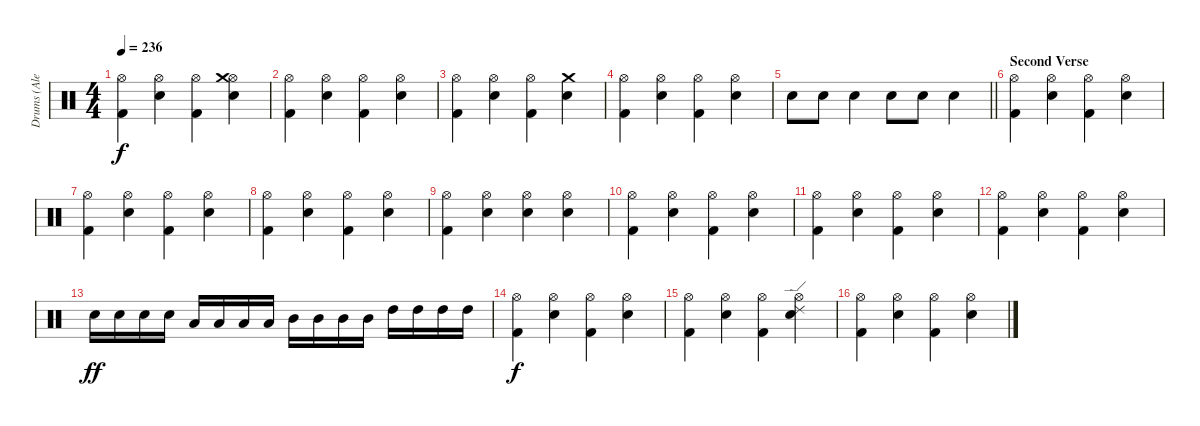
\track ("Drums (Alex Van Halen)" "Drums (Ale") {instrument percussion}
\staff {score}
\articulation defaults
\ts (4 4)
\tempo 236
\clef neutral
\ks c
("Hi-Hat (open)" "Kick (hit) 2").4{dy f} ("Hi-Hat (open)" "Snare (hit) 2").4 ("Hi-Hat (open)" "Kick (hit) 2").4 ("Hi-Hat (open)" "Crash medium (hit)" "Snare (hit) 2").4 |
("Hi-Hat (open)" "Kick (hit) 2").4 ("Hi-Hat (open)" "Snare (hit) 2").4 ("Hi-Hat (open)" "Kick (hit) 2").4 ("Hi-Hat (open)" "Snare (hit) 2").4 |
("Hi-Hat (open)" "Kick (hit) 2").4 ("Hi-Hat (open)" "Snare (hit) 2").4 ("Hi-Hat (open)" "Kick (hit) 2").4 ("Crash medium (hit)" "Snare (hit) 2").4 |
("Hi-Hat (open)" "Kick (hit) 2").4 ("Hi-Hat (open)" "Snare (hit) 2").4 ("Hi-Hat (open)" "Kick (hit) 2").4 ("Hi-Hat (open)" "Snare (hit) 2").4 |
\barLineRight lightlight "Snare (hit) 2".8 "Snare (hit) 2".8 "Snare (hit) 2".4 "Snare (hit) 2".8 "Snare (hit) 2".8 "Snare (hit) 2".4
|
\section ("" "Second Verse")
("Hi-Hat (open)" "Kick (hit) 2").4 ("Hi-Hat (open)" "Snare (hit) 2").4 ("Hi-Hat (open)" "Kick (hit) 2").4 ("Hi-Hat (open)" "Snare (hit) 2").4 |
("Hi-Hat (open)" "Kick (hit) 2").4 ("Hi-Hat (open)" "Snare (hit) 2").4 ("Hi-Hat (open)" "Kick (hit) 2").4 ("Hi-Hat (open)" "Snare (hit) 2").4 |
("Hi-Hat (open)" "Kick (hit) 2").4 ("Hi-Hat (open)" "Snare (hit) 2").4 ("Hi-Hat (open)" "Kick (hit) 2").4 ("Hi-Hat (open)" "Snare (hit) 2").4 |
("Hi-Hat (open)" "Kick (hit) 2").4 ("Hi-Hat (open)" "Snare (hit) 2").4 ("Hi-Hat (open)" "Snare (hit) 2").4 ("Hi-Hat (open)" "Snare (hit) 2").4 |
("Hi-Hat (open)" "Kick (hit) 2").4 ("Hi-Hat (open)" "Snare (hit) 2").4 ("Hi-Hat (open)" "Kick (hit) 2").4 ("Hi-Hat (open)" "Snare (hit) 2").4 |
("Hi-Hat (open)" "Kick (hit) 2").4 ("Hi-Hat (open)" "Snare (hit) 2").4 ("Hi-Hat (open)" "Kick (hit) 2").4 ("Hi-Hat (open)" "Snare (hit) 2").4 |
("Hi-Hat (open)" "Kick (hit) 2").4 ("Hi-Hat (open)" "Snare (hit) 2").4 ("Hi-Hat (open)" "Kick (hit) 2").4 ("Hi-Hat (open)" "Snare (hit) 2").4 |
"Snare (hit) 2".16{dy ff} "Snare (hit) 2".16 "Snare (hit) 2".16 "Snare (hit) 2".16 "Low Tom (hit)".16 "Low Tom (hit)".16 "Low Tom (hit)".16 "Low Tom (hit)".16 "Mid Tom (hit)".16 "Mid Tom (hit)".16 "Mid Tom (hit)".16 "Mid Tom (hit)".16 "High Tom (hit)".16 "High Tom (hit)".16 "High Tom (hit)".16 "High Tom (hit)".16 |
("Hi-Hat (open)" "Kick (hit) 2").4{dy f} ("Hi-Hat (open)" "Snare (hit) 2").4 ("Hi-Hat (open)" "Kick (hit) 2").4 ("Hi-Hat (open)" "Snare (hit) 2").4 |
("Hi-Hat (open)" "Kick (hit) 2").4 ("Hi-Hat (open)" "Snare (hit) 2").4 ("Hi-Hat (open)" "Kick (hit) 2").4 ("Hi-Hat (open)" "Ride (edge) 2" "Snare (hit) 2").4 |
("Hi-Hat (open)" "Kick (hit) 2").4 ("Hi-Hat (open)" "Snare (hit) 2").4 ("Hi-Hat (open)" "Kick (hit) 2").4 ("Hi-Hat (open)" "Snare (hit) 2").4
